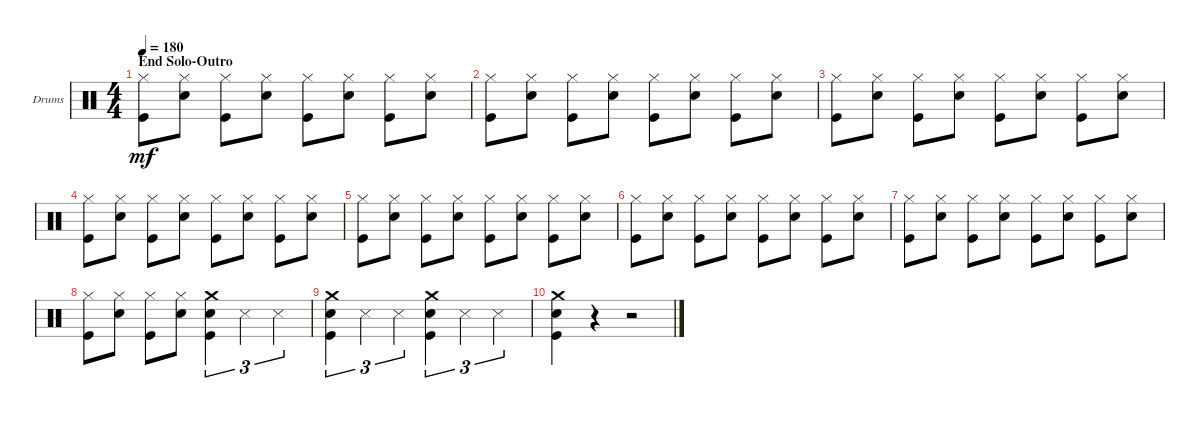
\bracketExtendMode groupsimilarinstruments
\firstSystemTrackNameOrientation horizontal
\otherSystemsTrackNameOrientation horizontal
\track ("Drumkit" "Drums") {instrument percussion}
\staff {score}
\articulation defaults
\ts (4 4)
\section ("" "End Solo-Outro")
\tempo 180
\clef neutral
\ks c
("Kick (hit)" "Hi-Hat (closed)").8{dy mf} ("Snare (hit) 2" "Hi-Hat (closed)").8 ("Kick (hit)" "Hi-Hat (closed)").8 ("Snare (hit) 2" "Hi-Hat (closed)").8 ("Kick (hit)" "Hi-Hat (closed)").8 ("Snare (hit) 2" "Hi-Hat (closed)").8 ("Kick (hit)" "Hi-Hat (closed)").8 ("Snare (hit) 2" "Hi-Hat (closed)").8 |
("Kick (hit)" "Hi-Hat (closed)").8 ("Snare (hit) 2" "Hi-Hat (closed)").8 ("Kick (hit)" "Hi-Hat (closed)").8 ("Snare (hit) 2" "Hi-Hat (closed)").8 ("Kick (hit)" "Hi-Hat (closed)").8 ("Snare (hit) 2" "Hi-Hat (closed)").8 ("Kick (hit)" "Hi-Hat (closed)").8 ("Snare (hit) 2" "Hi-Hat (closed)").8 |
("Kick (hit)" "Hi-Hat (closed)").8 ("Snare (hit) 2" "Hi-Hat (closed)").8 ("Kick (hit)" "Hi-Hat (closed)").8 ("Snare (hit) 2" "Hi-Hat (closed)").8 ("Kick (hit)" "Hi-Hat (closed)").8 ("Snare (hit) 2" "Hi-Hat (closed)").8 ("Kick (hit)" "Hi-Hat (closed)").8 ("Snare (hit) 2" "Hi-Hat (closed)").8 |
("Kick (hit)" "Hi-Hat (closed)").8 ("Snare (hit) 2" "Hi-Hat (closed)").8 ("Kick (hit)" "Hi-Hat (closed)").8 ("Snare (hit) 2" "Hi-Hat (closed)").8 ("Kick (hit)" "Hi-Hat (closed)").8 ("Snare (hit) 2" "Hi-Hat (closed)").8 ("Kick (hit)" "Hi-Hat (closed)").8 ("Snare (hit) 2" "Hi-Hat (closed)").8 |
("Kick (hit)" "Hi-Hat (closed)").8 ("Snare (hit) 2" "Hi-Hat (closed)").8 ("Kick (hit)" "Hi-Hat (closed)").8 ("Snare (hit) 2" "Hi-Hat (closed)").8 ("Kick (hit)" "Hi-Hat (closed)").8 ("Snare (hit) 2" "Hi-Hat (closed)").8 ("Kick (hit)" "Hi-Hat (closed)").8 ("Snare (hit) 2" "Hi-Hat (closed)").8 |
("Kick (hit)" "Hi-Hat (closed)").8 ("Snare (hit) 2" "Hi-Hat (closed)").8 ("Kick (hit)" "Hi-Hat (closed)").8 ("Snare (hit) 2" "Hi-Hat (closed)").8 ("Kick (hit)" "Hi-Hat (closed)").8 ("Snare (hit) 2" "Hi-Hat (closed)").8 ("Kick (hit)" "Hi-Hat (closed)").8 ("Snare (hit) 2" "Hi-Hat (closed)").8 |
("Kick (hit)" "Hi-Hat (closed)").8 ("Snare (hit) 2" "Hi-Hat (closed)").8 ("Kick (hit)" "Hi-Hat (closed)").8 ("Snare (hit) 2" "Hi-Hat (closed)").8 ("Kick (hit)" "Hi-Hat (closed)").8 ("Snare (hit) 2" "Hi-Hat (closed)").8 ("Kick (hit)" "Hi-Hat (closed)").8 ("Snare (hit) 2" "Hi-Hat (closed)").8 |
("Kick (hit)" "Hi-Hat (closed)").8 ("Snare (hit) 2" "Hi-Hat (closed)").8 ("Kick (hit)" "Hi-Hat (closed)").8 ("Snare (hit) 2" "Hi-Hat (closed)").8 ("Kick (hit)" "Snare (hit) 2" "Crash medium (hit)").4{tu (3 2)} "Snare (side stick) 3".4{tu (3 2)} "Snare (side stick) 3".4{tu (3 2)} |
("Kick (hit)" "Snare (hit) 2" "Crash medium (hit)").4{tu (3 2)} "Snare (side stick) 3".4{tu (3 2)} "Snare (side stick) 3".4{tu (3 2)} ("Kick (hit)" "Snare (hit) 2" "Crash medium (hit)").4{tu (3 2)} "Snare (side stick) 3".4{tu (3 2)} "Snare (side stick) 3".4{tu (3 2)} |
("Kick (hit)" "Snare (hit) 2" "Crash medium (hit)").4 r.4 r.2
